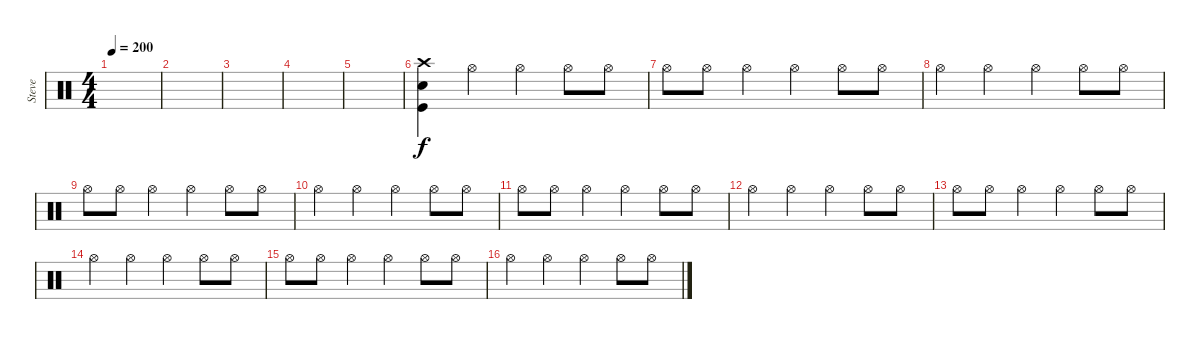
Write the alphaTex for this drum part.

\track ("Steve" "Steve") {instrument percussion}
\staff {score}
\articulation defaults
\ts (4 4)
\tempo 200
\clef neutral
\ks c
|
|
|
|
|
("Crash high (hit)" "Snare (hit) 2" "Kick (hit)").4 "Hi-Hat (open)".4 "Hi-Hat (open)".4 "Hi-Hat (open)".8 "Hi-Hat (open)".8 |
"Hi-Hat (open)".8 "Hi-Hat (open)".8 "Hi-Hat (open)".4 "Hi-Hat (open)".4 "Hi-Hat (open)".8 "Hi-Hat (open)".8 |
"Hi-Hat (open)".4 "Hi-Hat (open)".4 "Hi-Hat (open)".4 "Hi-Hat (open)".8 "Hi-Hat (open)".8 |
"Hi-Hat (open)".8 "Hi-Hat (open)".8 "Hi-Hat (open)".4 "Hi-Hat (open)".4 "Hi-Hat (open)".8 "Hi-Hat (open)".8 |
"Hi-Hat (open)".4 "Hi-Hat (open)".4 "Hi-Hat (open)".4 "Hi-Hat (open)".8 "Hi-Hat (open)".8 |
"Hi-Hat (open)".8 "Hi-Hat (open)".8 "Hi-Hat (open)".4 "Hi-Hat (open)".4 "Hi-Hat (open)".8 "Hi-Hat (open)".8 |
"Hi-Hat (open)".4 "Hi-Hat (open)".4 "Hi-Hat (open)".4 "Hi-Hat (open)".8 "Hi-Hat (open)".8 |
"Hi-Hat (open)".8 "Hi-Hat (open)".8 "Hi-Hat (open)".4 "Hi-Hat (open)".4 "Hi-Hat (open)".8 "Hi-Hat (open)".8 |
"Hi-Hat (open)".4 "Hi-Hat (open)".4 "Hi-Hat (open)".4 "Hi-Hat (open)".8 "Hi-Hat (open)".8 |
"Hi-Hat (open)".8 "Hi-Hat (open)".8 "Hi-Hat (open)".4 "Hi-Hat (open)".4 "Hi-Hat (open)".8 "Hi-Hat (open)".8 |
"Hi-Hat (open)".4 "Hi-Hat (open)".4 "Hi-Hat (open)".4 "Hi-Hat (open)".8 "Hi-Hat (open)".8
